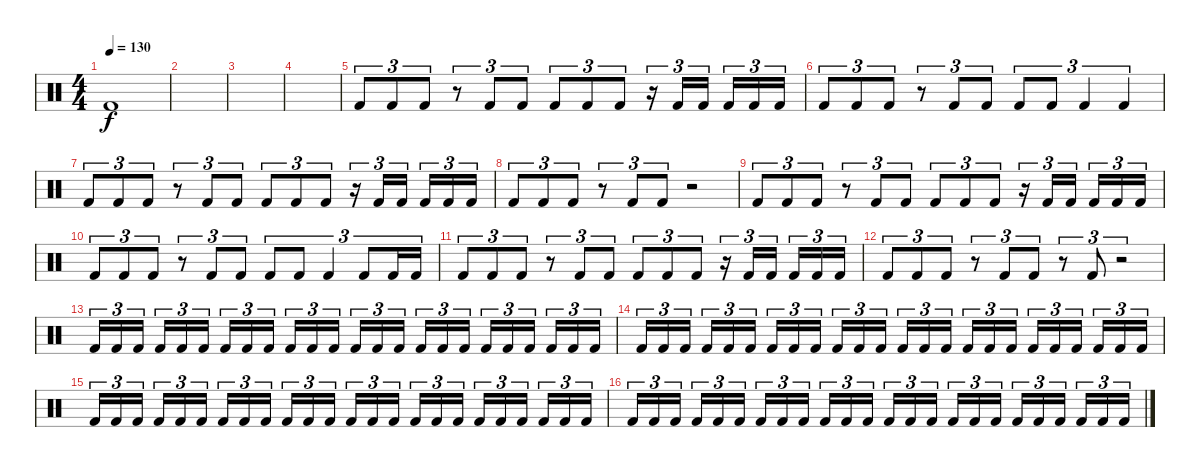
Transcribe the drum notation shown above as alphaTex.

\track "" {instrument percussion}
\staff {score}
\articulation defaults
\ts (4 4)
\tempo 130
\clef neutral
\ks c "Kick (hit) 2".1{dy f}
|
|
|
|
"Kick (hit) 2".8{tu (3 2)} "Kick (hit) 2".8{tu (3 2)} "Kick (hit) 2".8{tu (3 2)} r.8{tu (3 2)} "Kick (hit) 2".8{tu (3 2)} "Kick (hit) 2".8{tu (3 2)} "Kick (hit) 2".8{tu (3 2)} "Kick (hit) 2".8{tu (3 2)} "Kick (hit) 2".8{tu (3 2)} r.16{tu (3 2)} "Kick (hit) 2".16{tu (3 2)} "Kick (hit) 2".16{tu (3 2)} "Kick (hit) 2".16{tu (3 2)} "Kick (hit) 2".16{tu (3 2)} "Kick (hit) 2".16{tu (3 2)} |
"Kick (hit) 2".8{tu (3 2)} "Kick (hit) 2".8{tu (3 2)} "Kick (hit) 2".8{tu (3 2)} r.8{tu (3 2)} "Kick (hit) 2".8{tu (3 2)} "Kick (hit) 2".8{tu (3 2)} "Kick (hit) 2".8{tu (3 2)} "Kick (hit) 2".8{tu (3 2)} "Kick (hit) 2".4{tu (3 2)} "Kick (hit) 2".4{tu (3 2)} |
"Kick (hit) 2".8{tu (3 2)} "Kick (hit) 2".8{tu (3 2)} "Kick (hit) 2".8{tu (3 2)} r.8{tu (3 2)} "Kick (hit) 2".8{tu (3 2)} "Kick (hit) 2".8{tu (3 2)} "Kick (hit) 2".8{tu (3 2)} "Kick (hit) 2".8{tu (3 2)} "Kick (hit) 2".8{tu (3 2)} r.16{tu (3 2)} "Kick (hit) 2".16{tu (3 2)} "Kick (hit) 2".16{tu (3 2)} "Kick (hit) 2".16{tu (3 2)} "Kick (hit) 2".16{tu (3 2)} "Kick (hit) 2".16{tu (3 2)} |
"Kick (hit) 2".8{tu (3 2)} "Kick (hit) 2".8{tu (3 2)} "Kick (hit) 2".8{tu (3 2)} r.8{tu (3 2)} "Kick (hit) 2".8{tu (3 2)} "Kick (hit) 2".8{tu (3 2)} r.2 |
"Kick (hit) 2".8{tu (3 2)} "Kick (hit) 2".8{tu (3 2)} "Kick (hit) 2".8{tu (3 2)} r.8{tu (3 2)} "Kick (hit) 2".8{tu (3 2)} "Kick (hit) 2".8{tu (3 2)} "Kick (hit) 2".8{tu (3 2)} "Kick (hit) 2".8{tu (3 2)} "Kick (hit) 2".8{tu (3 2)} r.16{tu (3 2)} "Kick (hit) 2".16{tu (3 2)} "Kick (hit) 2".16{tu (3 2)} "Kick (hit) 2".16{tu (3 2)} "Kick (hit) 2".16{tu (3 2)} "Kick (hit) 2".16{tu (3 2)} |
"Kick (hit) 2".8{tu (3 2)} "Kick (hit) 2".8{tu (3 2)} "Kick (hit) 2".8{tu (3 2)} r.8{tu (3 2)} "Kick (hit) 2".8{tu (3 2)} "Kick (hit) 2".8{tu (3 2)} "Kick (hit) 2".8{tu (3 2)} "Kick (hit) 2".8{tu (3 2)} "Kick (hit) 2".4{tu (3 2)} "Kick (hit) 2".8{tu (3 2)} "Kick (hit) 2".16{tu (3 2)} "Kick (hit) 2".16{tu (3 2)} |
"Kick (hit) 2".8{tu (3 2)} "Kick (hit) 2".8{tu (3 2)} "Kick (hit) 2".8{tu (3 2)} r.8{tu (3 2)} "Kick (hit) 2".8{tu (3 2)} "Kick (hit) 2".8{tu (3 2)} "Kick (hit) 2".8{tu (3 2)} "Kick (hit) 2".8{tu (3 2)} "Kick (hit) 2".8{tu (3 2)} r.16{tu (3 2)} "Kick (hit) 2".16{tu (3 2)} "Kick (hit) 2".16{tu (3 2)} "Kick (hit) 2".16{tu (3 2)} "Kick (hit) 2".16{tu (3 2)} "Kick (hit) 2".16{tu (3 2)} |
"Kick (hit) 2".8{tu (3 2)} "Kick (hit) 2".8{tu (3 2)} "Kick (hit) 2".8{tu (3 2)} r.8{tu (3 2)} "Kick (hit) 2".8{tu (3 2)} "Kick (hit) 2".8{tu (3 2)} r.8{tu (3 2)} "Kick (hit) 2".8{tu (3 2)} r.2{tu (3 2)} |
"Kick (hit) 2".16{tu (3 2)} "Kick (hit) 2".16{tu (3 2)} "Kick (hit) 2".16{tu (3 2)} "Kick (hit) 2".16{tu (3 2)} "Kick (hit) 2".16{tu (3 2)} "Kick (hit) 2".16{tu (3 2)} "Kick (hit) 2".16{tu (3 2)} "Kick (hit) 2".16{tu (3 2)} "Kick (hit) 2".16{tu (3 2)} "Kick (hit) 2".16{tu (3 2)} "Kick (hit) 2".16{tu (3 2)} "Kick (hit) 2".16{tu (3 2)} "Kick (hit) 2".16{tu (3 2)} "Kick (hit) 2".16{tu (3 2)} "Kick (hit) 2".16{tu (3 2)} "Kick (hit) 2".16{tu (3 2)} "Kick (hit) 2".16{tu (3 2)} "Kick (hit) 2".16{tu (3 2)} "Kick (hit) 2".16{tu (3 2)} "Kick (hit) 2".16{tu (3 2)} "Kick (hit) 2".16{tu (3 2)} "Kick (hit) 2".16{tu (3 2)} "Kick (hit) 2".16{tu (3 2)} "Kick (hit) 2".16{tu (3 2)} |
"Kick (hit) 2".16{tu (3 2)} "Kick (hit) 2".16{tu (3 2)} "Kick (hit) 2".16{tu (3 2)} "Kick (hit) 2".16{tu (3 2)} "Kick (hit) 2".16{tu (3 2)} "Kick (hit) 2".16{tu (3 2)} "Kick (hit) 2".16{tu (3 2)} "Kick (hit) 2".16{tu (3 2)} "Kick (hit) 2".16{tu (3 2)} "Kick (hit) 2".16{tu (3 2)} "Kick (hit) 2".16{tu (3 2)} "Kick (hit) 2".16{tu (3 2)} "Kick (hit) 2".16{tu (3 2)} "Kick (hit) 2".16{tu (3 2)} "Kick (hit) 2".16{tu (3 2)} "Kick (hit) 2".16{tu (3 2)} "Kick (hit) 2".16{tu (3 2)} "Kick (hit) 2".16{tu (3 2)} "Kick (hit) 2".16{tu (3 2)} "Kick (hit) 2".16{tu (3 2)} "Kick (hit) 2".16{tu (3 2)} "Kick (hit) 2".16{tu (3 2)} "Kick (hit) 2".16{tu (3 2)} "Kick (hit) 2".16{tu (3 2)} |
"Kick (hit) 2".16{tu (3 2)} "Kick (hit) 2".16{tu (3 2)} "Kick (hit) 2".16{tu (3 2)} "Kick (hit) 2".16{tu (3 2)} "Kick (hit) 2".16{tu (3 2)} "Kick (hit) 2".16{tu (3 2)} "Kick (hit) 2".16{tu (3 2)} "Kick (hit) 2".16{tu (3 2)} "Kick (hit) 2".16{tu (3 2)} "Kick (hit) 2".16{tu (3 2)} "Kick (hit) 2".16{tu (3 2)} "Kick (hit) 2".16{tu (3 2)} "Kick (hit) 2".16{tu (3 2)} "Kick (hit) 2".16{tu (3 2)} "Kick (hit) 2".16{tu (3 2)} "Kick (hit) 2".16{tu (3 2)} "Kick (hit) 2".16{tu (3 2)} "Kick (hit) 2".16{tu (3 2)} "Kick (hit) 2".16{tu (3 2)} "Kick (hit) 2".16{tu (3 2)} "Kick (hit) 2".16{tu (3 2)} "Kick (hit) 2".16{tu (3 2)} "Kick (hit) 2".16{tu (3 2)} "Kick (hit) 2".16{tu (3 2)} |
"Kick (hit) 2".16{tu (3 2)} "Kick (hit) 2".16{tu (3 2)} "Kick (hit) 2".16{tu (3 2)} "Kick (hit) 2".16{tu (3 2)} "Kick (hit) 2".16{tu (3 2)} "Kick (hit) 2".16{tu (3 2)} "Kick (hit) 2".16{tu (3 2)} "Kick (hit) 2".16{tu (3 2)} "Kick (hit) 2".16{tu (3 2)} "Kick (hit) 2".16{tu (3 2)} "Kick (hit) 2".16{tu (3 2)} "Kick (hit) 2".16{tu (3 2)} "Kick (hit) 2".16{tu (3 2)} "Kick (hit) 2".16{tu (3 2)} "Kick (hit) 2".16{tu (3 2)} "Kick (hit) 2".16{tu (3 2)} "Kick (hit) 2".16{tu (3 2)} "Kick (hit) 2".16{tu (3 2)} "Kick (hit) 2".16{tu (3 2)} "Kick (hit) 2".16{tu (3 2)} "Kick (hit) 2".16{tu (3 2)} "Kick (hit) 2".16{tu (3 2)} "Kick (hit) 2".16{tu (3 2)} "Kick (hit) 2".16{tu (3 2)}
